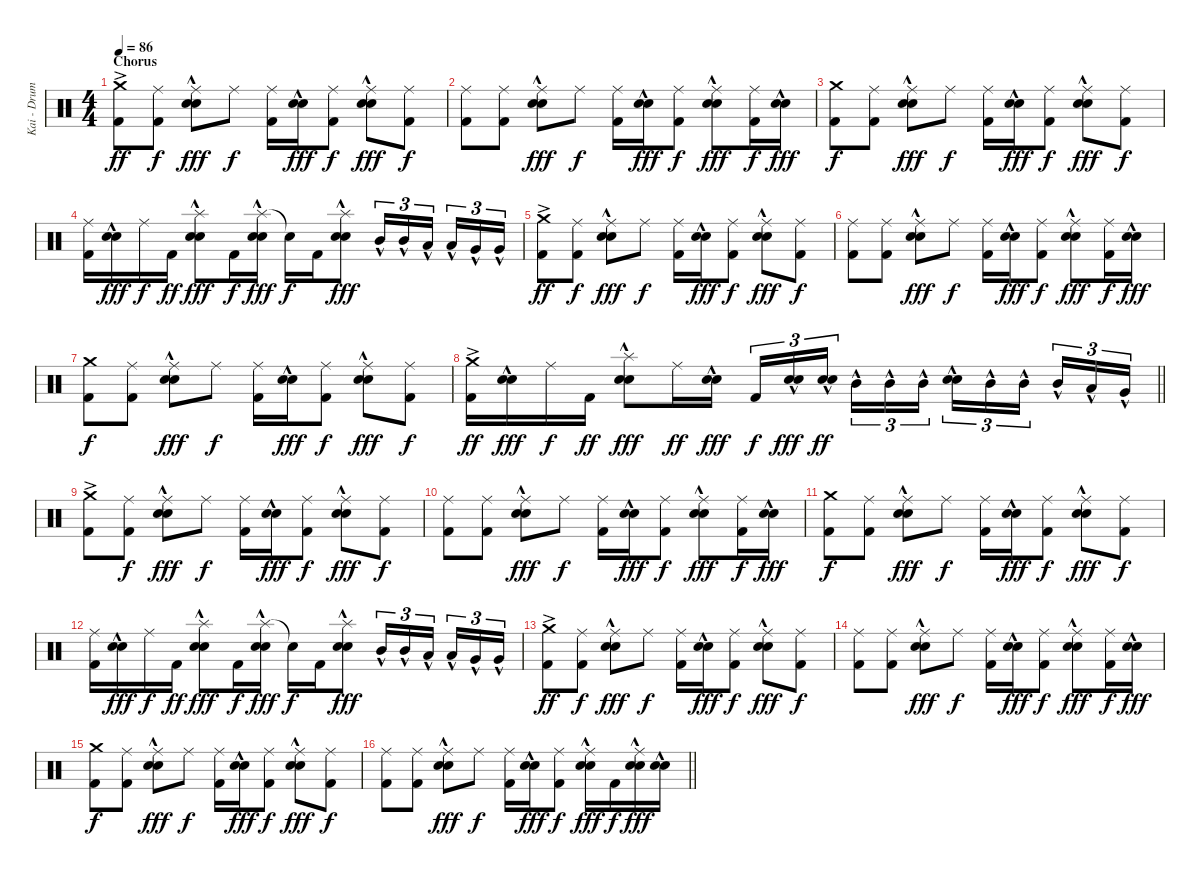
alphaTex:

\track ("Kai - Drums" "Kai - Drum") {instrument percussion}
\staff {score}
\articulation defaults
\ts (4 4)
\section ("" "Chorus")
\tempo 86
\clef neutral
\ks c
("Crash medium (hit)"{ac} "Kick (hit) 2").8{dy ff} ("Ride (middle)" "Kick (hit) 2").8{dy f} ("Ride (middle)" "Electric Snare (hit)"{hac} "Snare (hit) 2"{hac}).8{dy fff} "Ride (middle)".8{dy f} ("Ride (middle)" "Kick (hit) 2").16 ("Electric Snare (hit)"{hac} "Snare (hit) 2"{hac}).16{dy fff} ("Ride (middle)" "Kick (hit) 2").8{dy f} ("Ride (middle)" "Electric Snare (hit)"{hac} "Snare (hit) 2"{hac}).8{dy fff} ("Ride (middle)" "Kick (hit) 2").8{dy f} |
("Ride (middle)" "Kick (hit) 2").8 ("Ride (middle)" "Kick (hit) 2").8 ("Ride (middle)" "Electric Snare (hit)"{hac} "Snare (hit) 2"{hac}).8{dy fff} "Ride (middle)".8{dy f} ("Ride (middle)" "Kick (hit) 2").16 ("Electric Snare (hit)"{hac} "Snare (hit) 2"{hac}).16{dy fff} ("Ride (middle)" "Kick (hit) 2").8{dy f} ("Ride (middle)" "Electric Snare (hit)"{hac} "Snare (hit) 2"{hac}).8{dy fff} ("Ride (middle)" "Kick (hit) 2").16{dy f} ("Electric Snare (hit)"{hac} "Snare (hit) 2"{hac}).16{dy fff} |
("Crash medium (hit)" "Kick (hit) 2").8{dy f} ("Ride (middle)" "Kick (hit) 2").8 ("Ride (middle)" "Electric Snare (hit)"{hac} "Snare (hit) 2"{hac}).8{dy fff} "Ride (middle)".8{dy f} ("Ride (middle)" "Kick (hit) 2").16 ("Electric Snare (hit)"{hac} "Snare (hit) 2"{hac}).16{dy fff} ("Ride (middle)" "Kick (hit) 2").8{dy f} ("Ride (middle)" "Electric Snare (hit)"{hac} "Snare (hit) 2"{hac}).8{dy fff} ("Ride (middle)" "Kick (hit) 2").8{dy f} |
("Ride (middle)" "Kick (hit) 2").16 ("Electric Snare (hit)"{hac} "Snare (hit) 2"{hac}).16{dy fff} "Ride (middle)".16{dy f} "Kick (hit) 2".16{dy ff} ("Splash (hit)"{hac} "Electric Snare (hit)"{hac} "Snare (hit) 2"{hac}).8{dy fff} "Kick (hit) 2".16{dy f} ("Splash (hit)"{hac} "Electric Snare (hit)"{hac} "Snare (hit) 2"{hac}).16{dy fff} "Snare (hit)"{t}.16{dy f} "Kick (hit) 2".16 ("Splash (hit)"{hac} "Electric Snare (hit)"{hac} "Snare (hit) 2"{hac}).8{dy fff} "Mid Tom (hit)"{hac}.16{tu (3 2)} "Mid Tom (hit)"{hac}.16{tu (3 2)} "Low Tom (hit)"{hac}.16{tu (3 2) beam splitsecondary} "Low Tom (hit)"{hac}.16{tu (3 2)} "Very Low Tom (hit)"{hac}.16{tu (3 2)} "Very Low Tom (hit)"{hac}.16{tu (3 2)} |
("Crash medium (hit)"{ac} "Kick (hit) 2").8{dy ff} ("Ride (middle)" "Kick (hit) 2").8{dy f} ("Ride (middle)" "Electric Snare (hit)"{hac} "Snare (hit) 2"{hac}).8{dy fff} "Ride (middle)".8{dy f} ("Ride (middle)" "Kick (hit) 2").16 ("Electric Snare (hit)"{hac} "Snare (hit) 2"{hac}).16{dy fff} ("Ride (middle)" "Kick (hit) 2").8{dy f} ("Ride (middle)" "Electric Snare (hit)"{hac} "Snare (hit) 2"{hac}).8{dy fff} ("Ride (middle)" "Kick (hit) 2").8{dy f} |
("Ride (middle)" "Kick (hit) 2").8 ("Ride (middle)" "Kick (hit) 2").8 ("Ride (middle)" "Electric Snare (hit)"{hac} "Snare (hit) 2"{hac}).8{dy fff} "Ride (middle)".8{dy f} ("Ride (middle)" "Kick (hit) 2").16 ("Electric Snare (hit)"{hac} "Snare (hit) 2"{hac}).16{dy fff} ("Ride (middle)" "Kick (hit) 2").8{dy f} ("Ride (middle)" "Electric Snare (hit)"{hac} "Snare (hit) 2"{hac}).8{dy fff} ("Ride (middle)" "Kick (hit) 2").16{dy f} ("Electric Snare (hit)"{hac} "Snare (hit) 2"{hac}).16{dy fff} |
("Crash medium (hit)" "Kick (hit) 2").8{dy f} ("Ride (middle)" "Kick (hit) 2").8 ("Ride (middle)" "Electric Snare (hit)"{hac} "Snare (hit) 2"{hac}).8{dy fff} "Ride (middle)".8{dy f} ("Ride (middle)" "Kick (hit) 2").16 ("Electric Snare (hit)"{hac} "Snare (hit) 2"{hac}).16{dy fff} ("Ride (middle)" "Kick (hit) 2").8{dy f} ("Ride (middle)" "Electric Snare (hit)"{hac} "Snare (hit) 2"{hac}).8{dy fff} ("Ride (middle)" "Kick (hit) 2").8{dy f} |
\barLineRight lightlight
("Crash medium (hit)"{ac} "Kick (hit) 2").16{dy ff} ("Electric Snare (hit)"{hac} "Snare (hit) 2"{hac}).16{dy fff} "Ride (middle)".16{dy f} "Kick (hit) 2".16{dy ff} ("Splash (hit)"{hac} "Electric Snare (hit)"{hac} "Snare (hit) 2"{hac}).8{dy fff} "Ride (middle)".16{dy ff} ("Electric Snare (hit)"{hac} "Snare (hit) 2"{hac}).16{dy fff} "Kick (hit) 2".16{tu (3 2) dy f} ("Electric Snare (hit)"{hac} "Snare (hit) 2"{hac}).16{tu (3 2) dy fff} ("Electric Snare (hit)"{hac} "Snare (hit) 2"{hac}).16{tu (3 2) dy ff beam splitsecondary} "Mid Tom (hit)"{hac}.16{tu (3 2)} "Mid Tom (hit)"{hac}.16{tu (3 2)} "Mid Tom (hit)"{hac}.16{tu (3 2)} ("Electric Snare (hit)"{hac} "Snare (hit) 2"{hac}).16{tu (3 2)} "Mid Tom (hit)"{hac}.16{tu (3 2)} "Mid Tom (hit)"{hac}.16{tu (3 2) beam splitsecondary} "Mid Tom (hit)"{hac}.16{tu (3 2)} "Low Tom (hit)"{hac}.16{tu (3 2)} "Very Low Tom (hit)"{hac}.16{tu (3 2)} |
\section ("" "")
("Crash medium (hit)"{ac} "Kick (hit) 2").8 ("Ride (middle)" "Kick (hit) 2").8{dy f} ("Ride (middle)" "Electric Snare (hit)"{hac} "Snare (hit) 2"{hac}).8{dy fff} "Ride (middle)".8{dy f} ("Ride (middle)" "Kick (hit) 2").16 ("Electric Snare (hit)"{hac} "Snare (hit) 2"{hac}).16{dy fff} ("Ride (middle)" "Kick (hit) 2").8{dy f} ("Ride (middle)" "Electric Snare (hit)"{hac} "Snare (hit) 2"{hac}).8{dy fff} ("Ride (middle)" "Kick (hit) 2").8{dy f} |
("Ride (middle)" "Kick (hit) 2").8 ("Ride (middle)" "Kick (hit) 2").8 ("Ride (middle)" "Electric Snare (hit)"{hac} "Snare (hit) 2"{hac}).8{dy fff} "Ride (middle)".8{dy f} ("Ride (middle)" "Kick (hit) 2").16 ("Electric Snare (hit)"{hac} "Snare (hit) 2"{hac}).16{dy fff} ("Ride (middle)" "Kick (hit) 2").8{dy f} ("Ride (middle)" "Electric Snare (hit)"{hac} "Snare (hit) 2"{hac}).8{dy fff} ("Ride (middle)" "Kick (hit) 2").16{dy f} ("Electric Snare (hit)"{hac} "Snare (hit) 2"{hac}).16{dy fff} |
("Crash medium (hit)" "Kick (hit) 2").8{dy f} ("Ride (middle)" "Kick (hit) 2").8 ("Ride (middle)" "Electric Snare (hit)"{hac} "Snare (hit) 2"{hac}).8{dy fff} "Ride (middle)".8{dy f} ("Ride (middle)" "Kick (hit) 2").16 ("Electric Snare (hit)"{hac} "Snare (hit) 2"{hac}).16{dy fff} ("Ride (middle)" "Kick (hit) 2").8{dy f} ("Ride (middle)" "Electric Snare (hit)"{hac} "Snare (hit) 2"{hac}).8{dy fff} ("Ride (middle)" "Kick (hit) 2").8{dy f} |
("Ride (middle)" "Kick (hit) 2").16 ("Electric Snare (hit)"{hac} "Snare (hit) 2"{hac}).16{dy fff} "Ride (middle)".16{dy f} "Kick (hit) 2".16{dy ff} ("Splash (hit)"{hac} "Electric Snare (hit)"{hac} "Snare (hit) 2"{hac}).8{dy fff} "Kick (hit) 2".16{dy f} ("Splash (hit)"{hac} "Electric Snare (hit)"{hac} "Snare (hit) 2"{hac}).16{dy fff} "Snare (hit)"{t}.16{dy f} "Kick (hit) 2".16 ("Splash (hit)"{hac} "Electric Snare (hit)"{hac} "Snare (hit) 2"{hac}).8{dy fff} "Mid Tom (hit)"{hac}.16{tu (3 2)} "Mid Tom (hit)"{hac}.16{tu (3 2)} "Low Tom (hit)"{hac}.16{tu (3 2) beam splitsecondary} "Low Tom (hit)"{hac}.16{tu (3 2)} "Very Low Tom (hit)"{hac}.16{tu (3 2)} "Very Low Tom (hit)"{hac}.16{tu (3 2)} |
("Crash medium (hit)"{ac} "Kick (hit) 2").8{dy ff} ("Ride (middle)" "Kick (hit) 2").8{dy f} ("Ride (middle)" "Electric Snare (hit)"{hac} "Snare (hit) 2"{hac}).8{dy fff} "Ride (middle)".8{dy f} ("Ride (middle)" "Kick (hit) 2").16 ("Electric Snare (hit)"{hac} "Snare (hit) 2"{hac}).16{dy fff} ("Ride (middle)" "Kick (hit) 2").8{dy f} ("Ride (middle)" "Electric Snare (hit)"{hac} "Snare (hit) 2"{hac}).8{dy fff} ("Ride (middle)" "Kick (hit) 2").8{dy f} |
("Ride (middle)" "Kick (hit) 2").8 ("Ride (middle)" "Kick (hit) 2").8 ("Ride (middle)" "Electric Snare (hit)"{hac} "Snare (hit) 2"{hac}).8{dy fff} "Ride (middle)".8{dy f} ("Ride (middle)" "Kick (hit) 2").16 ("Electric Snare (hit)"{hac} "Snare (hit) 2"{hac}).16{dy fff} ("Ride (middle)" "Kick (hit) 2").8{dy f} ("Ride (middle)" "Electric Snare (hit)"{hac} "Snare (hit) 2"{hac}).8{dy fff} ("Ride (middle)" "Kick (hit) 2").16{dy f} ("Electric Snare (hit)"{hac} "Snare (hit) 2"{hac}).16{dy fff} |
("Crash medium (hit)" "Kick (hit) 2").8{dy f} ("Ride (middle)" "Kick (hit) 2").8 ("Ride (middle)" "Electric Snare (hit)"{hac} "Snare (hit) 2"{hac}).8{dy fff} "Ride (middle)".8{dy f} ("Ride (middle)" "Kick (hit) 2").16 ("Electric Snare (hit)"{hac} "Snare (hit) 2"{hac}).16{dy fff} ("Ride (middle)" "Kick (hit) 2").8{dy f} ("Ride (middle)" "Electric Snare (hit)"{hac} "Snare (hit) 2"{hac}).8{dy fff} ("Ride (middle)" "Kick (hit) 2").8{dy f} |
\barLineRight lightlight
("Ride (middle)" "Kick (hit) 2").8 ("Ride (middle)" "Kick (hit) 2").8 ("Ride (middle)" "Electric Snare (hit)"{hac} "Snare (hit) 2"{hac}).8{dy fff} "Ride (middle)".8{dy f} ("Ride (middle)" "Kick (hit) 2").16 ("Electric Snare (hit)"{hac} "Snare (hit) 2"{hac}).16{dy fff} ("Ride (middle)" "Kick (hit) 2").8{dy f} ("Ride (middle)" "Electric Snare (hit)"{hac} "Snare (hit) 2"{hac}).16{dy fff} "Kick (hit) 2".16{dy f} ("Ride (middle)" "Electric Snare (hit)"{hac} "Snare (hit) 2"{hac}).16{dy fff} ("Electric Snare (hit)"{hac} "Snare (hit) 2"{hac}).16
